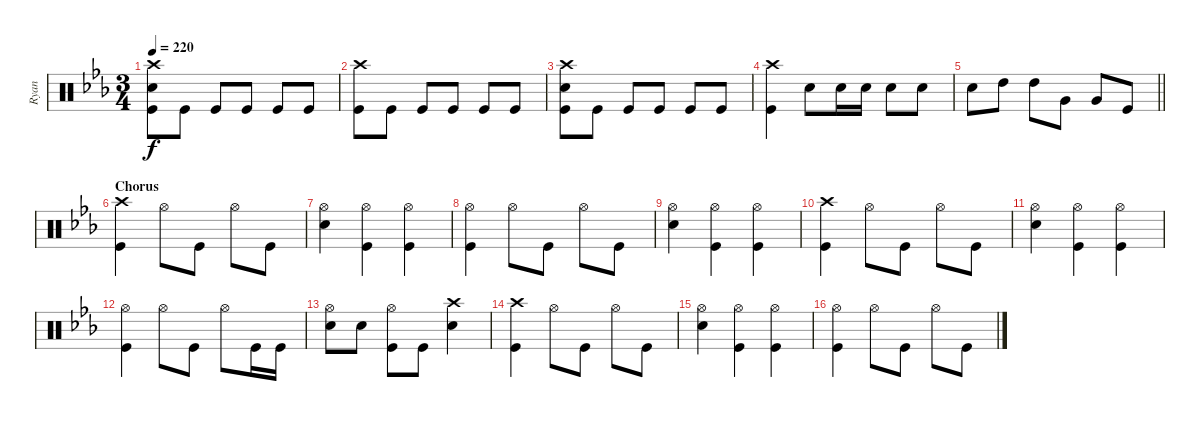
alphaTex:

\track ("Ryan" "Ryan") {instrument percussion}
\staff {score}
\articulation defaults
\ts (3 4)
\tempo 220
\clef neutral
\ks cminor
("Crash high (hit)" "Snare (hit) 2" "Kick (hit)").8{dy f} "Kick (hit)".8 "Kick (hit)".8 "Kick (hit)".8 "Kick (hit)".8 "Kick (hit)".8 |
("Kick (hit)" "Crash high (hit)").8 "Kick (hit)".8 "Kick (hit)".8 "Kick (hit)".8 "Kick (hit)".8 "Kick (hit)".8 |
("Crash high (hit)" "Snare (hit) 2" "Kick (hit)").8 "Kick (hit)".8 "Kick (hit)".8 "Kick (hit)".8 "Kick (hit)".8 "Kick (hit)".8 |
("Kick (hit)" "Crash high (hit)").4 "Snare (hit) 2".8 "Snare (hit) 2".16 "Snare (hit) 2".16 "Snare (hit) 2".8 "Snare (hit) 2".8 |
\barLineRight lightlight "Snare (hit) 2".8 "High Tom (hit)".8 "High Tom (hit)".8 "Very Low Tom (hit)".8 "Very Low Tom (hit)".8 "Kick (hit)".8
|
\section ("" "Chorus")
("Crash high (hit)" "Kick (hit)").4 "Hi-Hat (open)".8 "Kick (hit)".8 "Hi-Hat (open)".8 "Kick (hit)".8 |
("Snare (hit) 2" "Hi-Hat (open)").4 ("Kick (hit)" "Hi-Hat (open)").4 ("Kick (hit)" "Hi-Hat (open)").4 |
("Kick (hit)" "Hi-Hat (open)").4 "Hi-Hat (open)".8 "Kick (hit)".8 "Hi-Hat (open)".8 "Kick (hit)".8 |
("Snare (hit) 2" "Hi-Hat (open)").4 ("Kick (hit)" "Hi-Hat (open)").4 ("Kick (hit)" "Hi-Hat (open)").4 |
("Crash high (hit)" "Kick (hit)").4 "Hi-Hat (open)".8 "Kick (hit)".8 "Hi-Hat (open)".8 "Kick (hit)".8 |
("Snare (hit) 2" "Hi-Hat (open)").4 ("Kick (hit)" "Hi-Hat (open)").4 ("Kick (hit)" "Hi-Hat (open)").4 |
("Kick (hit)" "Hi-Hat (open)").4 "Hi-Hat (open)".8 "Kick (hit)".8 "Hi-Hat (open)".8 "Kick (hit)".16 "Kick (hit)".16 |
("Hi-Hat (open)" "Snare (hit) 2").8 "Snare (hit) 2".8 ("Kick (hit)" "Hi-Hat (open)").8 "Kick (hit)".8 ("Crash high (hit)" "Snare (hit) 2").4 |
("Crash high (hit)" "Kick (hit)").4 "Hi-Hat (open)".8 "Kick (hit)".8 "Hi-Hat (open)".8 "Kick (hit)".8 |
("Snare (hit) 2" "Hi-Hat (open)").4 ("Kick (hit)" "Hi-Hat (open)").4 ("Kick (hit)" "Hi-Hat (open)").4 |
("Kick (hit)" "Hi-Hat (open)").4 "Hi-Hat (open)".8 "Kick (hit)".8 "Hi-Hat (open)".8 "Kick (hit)".8
